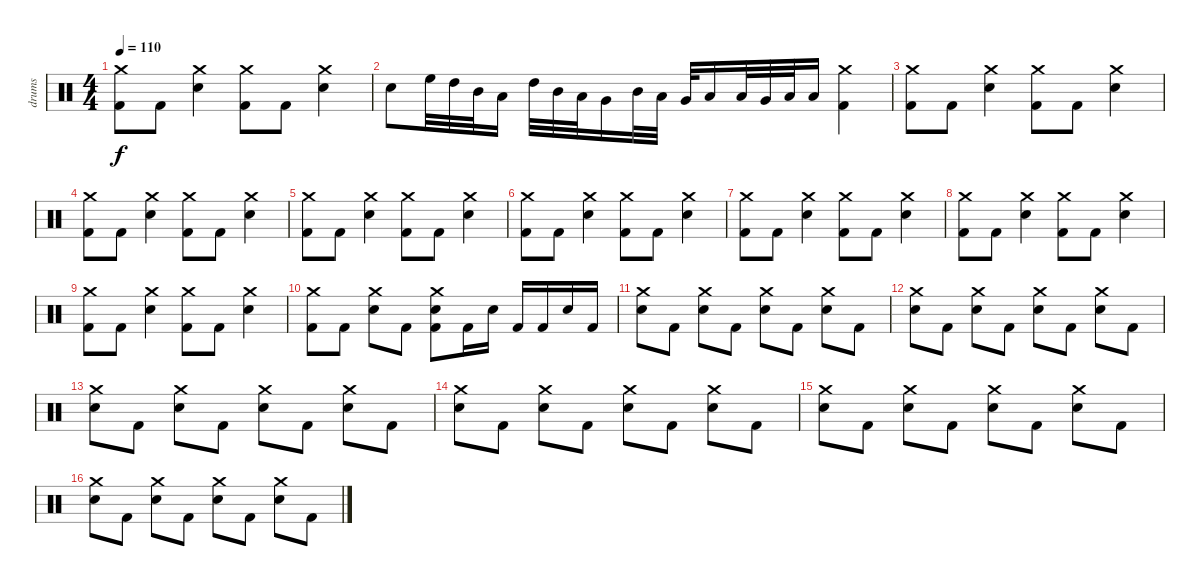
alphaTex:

\track ("drums" "drums") {instrument percussion}
\staff {score}
\articulation defaults
\ts (4 4)
\tempo 110
\clef neutral
\ks c
("Crash medium (hit)" "Kick (hit) 2").8{dy f} "Kick (hit) 2".8 ("Crash medium (hit)" "Electric Snare (hit)").4 ("Crash medium (hit)" "Kick (hit) 2").8 "Kick (hit) 2".8 ("Crash medium (hit)" "Electric Snare (hit)").4 |
"Electric Snare (hit)".8 "High Floor Tom (hit)".32 "High Tom (hit)".32 "Mid Tom (hit)".32 "Low Tom (hit)".16 "High Tom (hit)".32 "Mid Tom (hit)".32 "Low Tom (hit)".32 "Very Low Tom (hit)".16 "Mid Tom (hit)".32 "Low Tom (hit)".32 "Very Low Tom (hit)".32 "Low Floor Tom (hit)".16 "Low Tom (hit)".32 "Very Low Tom (hit)".32 "Low Floor Tom (hit)".32 "Low Floor Tom (hit)".16 ("Crash medium (hit)" "Kick (hit) 2").4 |
("Crash medium (hit)" "Kick (hit) 2").8 "Kick (hit) 2".8 ("Crash medium (hit)" "Electric Snare (hit)").4 ("Crash medium (hit)" "Kick (hit) 2").8 "Kick (hit) 2".8 ("Crash medium (hit)" "Electric Snare (hit)").4 |
("Crash medium (hit)" "Kick (hit) 2").8 "Kick (hit) 2".8 ("Crash medium (hit)" "Electric Snare (hit)").4 ("Crash medium (hit)" "Kick (hit) 2").8 "Kick (hit) 2".8 ("Crash medium (hit)" "Electric Snare (hit)").4 |
("Crash medium (hit)" "Kick (hit) 2").8 "Kick (hit) 2".8 ("Crash medium (hit)" "Electric Snare (hit)").4 ("Crash medium (hit)" "Kick (hit) 2").8 "Kick (hit) 2".8 ("Crash medium (hit)" "Electric Snare (hit)").4 |
("Crash medium (hit)" "Kick (hit) 2").8 "Kick (hit) 2".8 ("Crash medium (hit)" "Electric Snare (hit)").4 ("Crash medium (hit)" "Kick (hit) 2").8 "Kick (hit) 2".8 ("Crash medium (hit)" "Electric Snare (hit)").4 |
("Crash medium (hit)" "Kick (hit) 2").8 "Kick (hit) 2".8 ("Crash medium (hit)" "Electric Snare (hit)").4 ("Crash medium (hit)" "Kick (hit) 2").8 "Kick (hit) 2".8 ("Crash medium (hit)" "Electric Snare (hit)").4 |
("Crash medium (hit)" "Kick (hit) 2").8 "Kick (hit) 2".8 ("Crash medium (hit)" "Electric Snare (hit)").4 ("Crash medium (hit)" "Kick (hit) 2").8 "Kick (hit) 2".8 ("Crash medium (hit)" "Electric Snare (hit)").4 |
("Crash medium (hit)" "Kick (hit) 2").8 "Kick (hit) 2".8 ("Crash medium (hit)" "Electric Snare (hit)").4 ("Crash medium (hit)" "Kick (hit) 2").8 "Kick (hit) 2".8 ("Crash medium (hit)" "Electric Snare (hit)").4 |
("Crash medium (hit)" "Kick (hit) 2").8 "Kick (hit) 2".8 ("Crash medium (hit)" "Electric Snare (hit)").8 "Kick (hit) 2".8 ("Crash medium (hit)" "Electric Snare (hit)" "Kick (hit) 2").8 "Kick (hit) 2".16 "Electric Snare (hit)".16 "Kick (hit) 2".16 "Kick (hit) 2".16 "Electric Snare (hit)".16 "Kick (hit) 2".16 |
("Crash medium (hit)" "Electric Snare (hit)").8 "Kick (hit) 2".8 ("Crash medium (hit)" "Electric Snare (hit)").8 "Kick (hit) 2".8 ("Crash medium (hit)" "Electric Snare (hit)").8 "Kick (hit) 2".8 ("Crash medium (hit)" "Electric Snare (hit)").8 "Kick (hit) 2".8 |
("Crash medium (hit)" "Electric Snare (hit)").8 "Kick (hit) 2".8 ("Crash medium (hit)" "Electric Snare (hit)").8 "Kick (hit) 2".8 ("Crash medium (hit)" "Electric Snare (hit)").8 "Kick (hit) 2".8 ("Crash medium (hit)" "Electric Snare (hit)").8 "Kick (hit) 2".8 |
("Crash medium (hit)" "Electric Snare (hit)").8 "Kick (hit) 2".8 ("Crash medium (hit)" "Electric Snare (hit)").8 "Kick (hit) 2".8 ("Crash medium (hit)" "Electric Snare (hit)").8 "Kick (hit) 2".8 ("Crash medium (hit)" "Electric Snare (hit)").8 "Kick (hit) 2".8 |
("Crash medium (hit)" "Electric Snare (hit)").8 "Kick (hit) 2".8 ("Crash medium (hit)" "Electric Snare (hit)").8 "Kick (hit) 2".8 ("Crash medium (hit)" "Electric Snare (hit)").8 "Kick (hit) 2".8 ("Crash medium (hit)" "Electric Snare (hit)").8 "Kick (hit) 2".8 |
("Crash medium (hit)" "Electric Snare (hit)").8 "Kick (hit) 2".8 ("Crash medium (hit)" "Electric Snare (hit)").8 "Kick (hit) 2".8 ("Crash medium (hit)" "Electric Snare (hit)").8 "Kick (hit) 2".8 ("Crash medium (hit)" "Electric Snare (hit)").8 "Kick (hit) 2".8 |
("Crash medium (hit)" "Electric Snare (hit)").8 "Kick (hit) 2".8 ("Crash medium (hit)" "Electric Snare (hit)").8 "Kick (hit) 2".8 ("Crash medium (hit)" "Electric Snare (hit)").8 "Kick (hit) 2".8 ("Crash medium (hit)" "Electric Snare (hit)").8 "Kick (hit) 2".8
